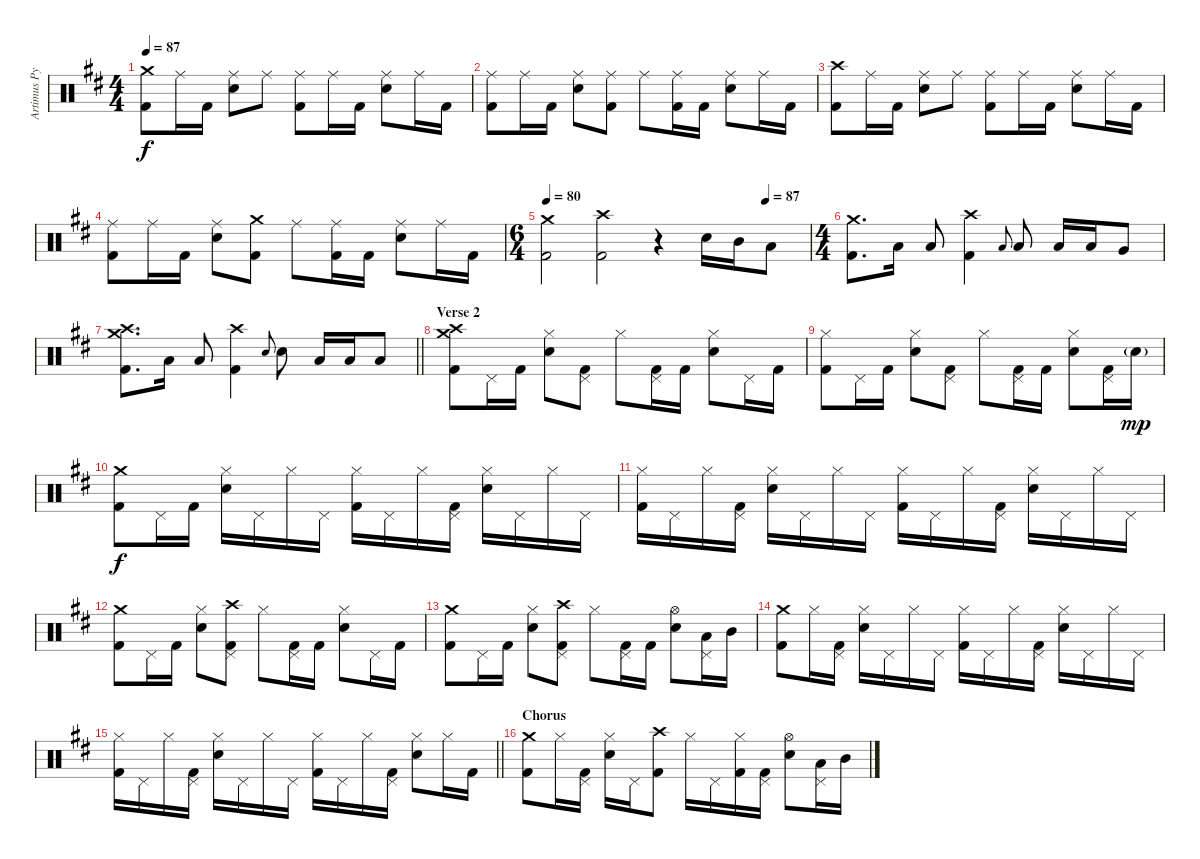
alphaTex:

\track ("Artimus Pyle - Drums" "Artimus Py") {instrument percussion}
\staff {score}
\articulation defaults
\ts (4 4)
\tempo 87
\clef neutral
\ks d
("Crash medium (hit)" "Kick (hit) 2").8{dy f} "Ride (middle)".16 "Kick (hit) 2".16 ("Ride (middle)" "Snare (hit) 2").8 "Ride (middle)".8 ("Ride (middle)" "Kick (hit) 2").8 "Ride (middle)".16 "Kick (hit) 2".16 ("Ride (middle)" "Snare (hit) 2").8 "Ride (middle)".16 "Kick (hit) 2".16 |
("Ride (middle)" "Kick (hit) 2").8 "Ride (middle)".16 "Kick (hit) 2".16 ("Ride (middle)" "Snare (hit) 2").8 ("Ride (middle)" "Kick (hit) 2").8 "Ride (middle)".8 ("Ride (middle)" "Kick (hit) 2").16 "Kick (hit) 2".16 ("Ride (middle)" "Snare (hit) 2").8 "Ride (middle)".16 "Kick (hit) 2".16 |
("Crash high (hit)" "Kick (hit) 2").8 "Ride (middle)".16 "Kick (hit) 2".16 ("Ride (middle)" "Snare (hit) 2").8 "Ride (middle)".8 ("Ride (middle)" "Kick (hit) 2").8 "Ride (middle)".16 "Kick (hit) 2".16 ("Ride (middle)" "Snare (hit) 2").8 "Ride (middle)".16 "Kick (hit) 2".16 |
("Ride (middle)" "Kick (hit) 2").8 "Ride (middle)".16 "Kick (hit) 2".16 ("Ride (middle)" "Snare (hit) 2").8 ("Crash medium (hit)" "Kick (hit) 2").8 "Ride (middle)".8 ("Ride (middle)" "Kick (hit) 2").16 "Kick (hit) 2".16 ("Ride (middle)" "Snare (hit) 2").8 "Ride (middle)".16 "Kick (hit) 2".16 |
\ts (6 4)
\tempo 80
\tempo (87 0.8333333333333334)
("Crash medium (hit)" "Kick (hit) 2").2 ("Crash high (hit)" "Kick (hit) 2").2 r.4 "Snare (hit) 2".16 "Mid Tom (hit)".16 "Low Floor Tom (hit)".8 |
\ts (4 4)
("Crash medium (hit)" "Kick (hit) 2").8{d} "Low Floor Tom (hit)".16 "Low Floor Tom (hit)".8 ("Crash high (hit)" "Kick (hit) 2").4 "Low Floor Tom (hit)".8{gr onbeat} "Low Floor Tom (hit)".8 "Low Tom (hit)".16 "Low Tom (hit)".16 "Very Low Tom (hit)".8 |
\barLineRight lightlight
("Crash medium (hit)" "Crash high (hit)" "Kick (hit) 2").8{d} "Low Floor Tom (hit)".16 "Low Floor Tom (hit)".8 ("Crash high (hit)" "Kick (hit) 2").4 "Snare (hit) 2".8{gr onbeat} "Snare (hit) 2".8 "Low Floor Tom (hit)".16 "Low Floor Tom (hit)".16 "Low Floor Tom (hit)".8 |
\section ("" "Verse 2")
("Crash medium (hit)" "Crash high (hit)" "Kick (hit) 2").8 "Pedal Hi-Hat (hit)".16 "Kick (hit) 2".16 ("Snare (hit) 2" "Hi-Hat (closed)").8 ("Pedal Hi-Hat (hit)" "Kick (hit) 2").8 "Hi-Hat (closed)".8 ("Pedal Hi-Hat (hit)" "Kick (hit) 2").16 "Kick (hit) 2".16 ("Snare (hit) 2" "Hi-Hat (closed)").8 "Pedal Hi-Hat (hit)".16 "Kick (hit) 2".16 |
("Hi-Hat (closed)" "Kick (hit) 2").8 "Pedal Hi-Hat (hit)".16 "Kick (hit) 2".16 ("Snare (hit) 2" "Hi-Hat (closed)").8 ("Pedal Hi-Hat (hit)" "Kick (hit) 2").8 "Hi-Hat (closed)".8 ("Pedal Hi-Hat (hit)" "Kick (hit) 2").16 "Kick (hit) 2".16 ("Snare (hit) 2" "Hi-Hat (closed)").8 ("Pedal Hi-Hat (hit)" "Kick (hit) 2").16 "Snare (hit) 2"{g}.16{dy mp} |
("Crash medium (hit)" "Kick (hit) 2").8{dy f} "Pedal Hi-Hat (hit)".16 "Kick (hit) 2".16 ("Snare (hit) 2" "Hi-Hat (closed)").16 "Pedal Hi-Hat (hit)".16 "Hi-Hat (closed)".16 "Pedal Hi-Hat (hit)".16 ("Hi-Hat (closed)" "Kick (hit) 2").16 "Pedal Hi-Hat (hit)".16 "Hi-Hat (closed)".16 ("Pedal Hi-Hat (hit)" "Kick (hit) 2").16 ("Snare (hit) 2" "Hi-Hat (closed)").16 "Pedal Hi-Hat (hit)".16 "Hi-Hat (closed)".16 "Pedal Hi-Hat (hit)".16 |
("Hi-Hat (closed)" "Kick (hit) 2").16 "Pedal Hi-Hat (hit)".16 "Hi-Hat (closed)".16 ("Pedal Hi-Hat (hit)" "Kick (hit) 2").16 ("Snare (hit) 2" "Hi-Hat (closed)").16 "Pedal Hi-Hat (hit)".16 "Hi-Hat (closed)".16 "Pedal Hi-Hat (hit)".16 ("Hi-Hat (closed)" "Kick (hit) 2").16 "Pedal Hi-Hat (hit)".16 "Hi-Hat (closed)".16 ("Pedal Hi-Hat (hit)" "Kick (hit) 2").16 ("Snare (hit) 2" "Hi-Hat (closed)").16 "Pedal Hi-Hat (hit)".16 "Hi-Hat (closed)".16 "Pedal Hi-Hat (hit)".16 |
("Crash medium (hit)" "Kick (hit) 2").8 "Pedal Hi-Hat (hit)".16 "Kick (hit) 2".16 ("Snare (hit) 2" "Hi-Hat (closed)").8 ("Crash high (hit)" "Pedal Hi-Hat (hit)" "Kick (hit) 2").8 "Hi-Hat (closed)".8 ("Pedal Hi-Hat (hit)" "Kick (hit) 2").16 "Kick (hit) 2".16 ("Snare (hit) 2" "Hi-Hat (closed)").8 "Pedal Hi-Hat (hit)".16 "Kick (hit) 2".16 |
("Crash medium (hit)" "Kick (hit) 2").8 "Pedal Hi-Hat (hit)".16 "Kick (hit) 2".16 ("Snare (hit) 2" "Hi-Hat (closed)").8 ("Crash high (hit)" "Pedal Hi-Hat (hit)" "Kick (hit) 2").8 "Hi-Hat (closed)".8 ("Pedal Hi-Hat (hit)" "Kick (hit) 2").16 "Kick (hit) 2".16 ("Snare (hit) 2" "Hi-Hat (open)").8 ("Pedal Hi-Hat (hit)" "Low Floor Tom (hit)").16 "Mid Tom (hit)".16 |
("Crash medium (hit)" "Kick (hit) 2").8 "Hi-Hat (closed)".16 ("Pedal Hi-Hat (hit)" "Kick (hit) 2").16 ("Snare (hit) 2" "Hi-Hat (closed)").16 "Pedal Hi-Hat (hit)".16 "Hi-Hat (closed)".16 "Pedal Hi-Hat (hit)".16 ("Hi-Hat (closed)" "Kick (hit) 2").16 "Pedal Hi-Hat (hit)".16 "Hi-Hat (closed)".16 ("Pedal Hi-Hat (hit)" "Kick (hit) 2").16 ("Snare (hit) 2" "Hi-Hat (closed)").16 "Pedal Hi-Hat (hit)".16 "Hi-Hat (closed)".16 "Pedal Hi-Hat (hit)".16 |
\barLineRight lightlight
("Hi-Hat (closed)" "Kick (hit) 2").16 "Pedal Hi-Hat (hit)".16 "Hi-Hat (closed)".16 ("Pedal Hi-Hat (hit)" "Kick (hit) 2").16 ("Snare (hit) 2" "Hi-Hat (closed)").16 "Pedal Hi-Hat (hit)".16 "Hi-Hat (closed)".16 "Pedal Hi-Hat (hit)".16 ("Hi-Hat (closed)" "Kick (hit) 2").16 "Pedal Hi-Hat (hit)".16 "Hi-Hat (closed)".16 ("Pedal Hi-Hat (hit)" "Kick (hit) 2").16 ("Snare (hit) 2" "Hi-Hat (closed)").8 "Hi-Hat (closed)".16 "Kick (hit) 2".16 |
\section ("" "Chorus")
("Crash medium (hit)" "Kick (hit) 2").8 "Hi-Hat (closed)".16 ("Pedal Hi-Hat (hit)" "Kick (hit) 2").16 ("Snare (hit) 2" "Hi-Hat (closed)").16 "Pedal Hi-Hat (hit)".16 ("Crash high (hit)" "Kick (hit) 2").8 "Hi-Hat (closed)".16 "Pedal Hi-Hat (hit)".16 ("Hi-Hat (closed)" "Kick (hit) 2").16 ("Pedal Hi-Hat (hit)" "Kick (hit) 2").16 ("Snare (hit) 2" "Hi-Hat (open)").8 ("Pedal Hi-Hat (hit)" "Low Floor Tom (hit)").16 "Mid Tom (hit)".16
